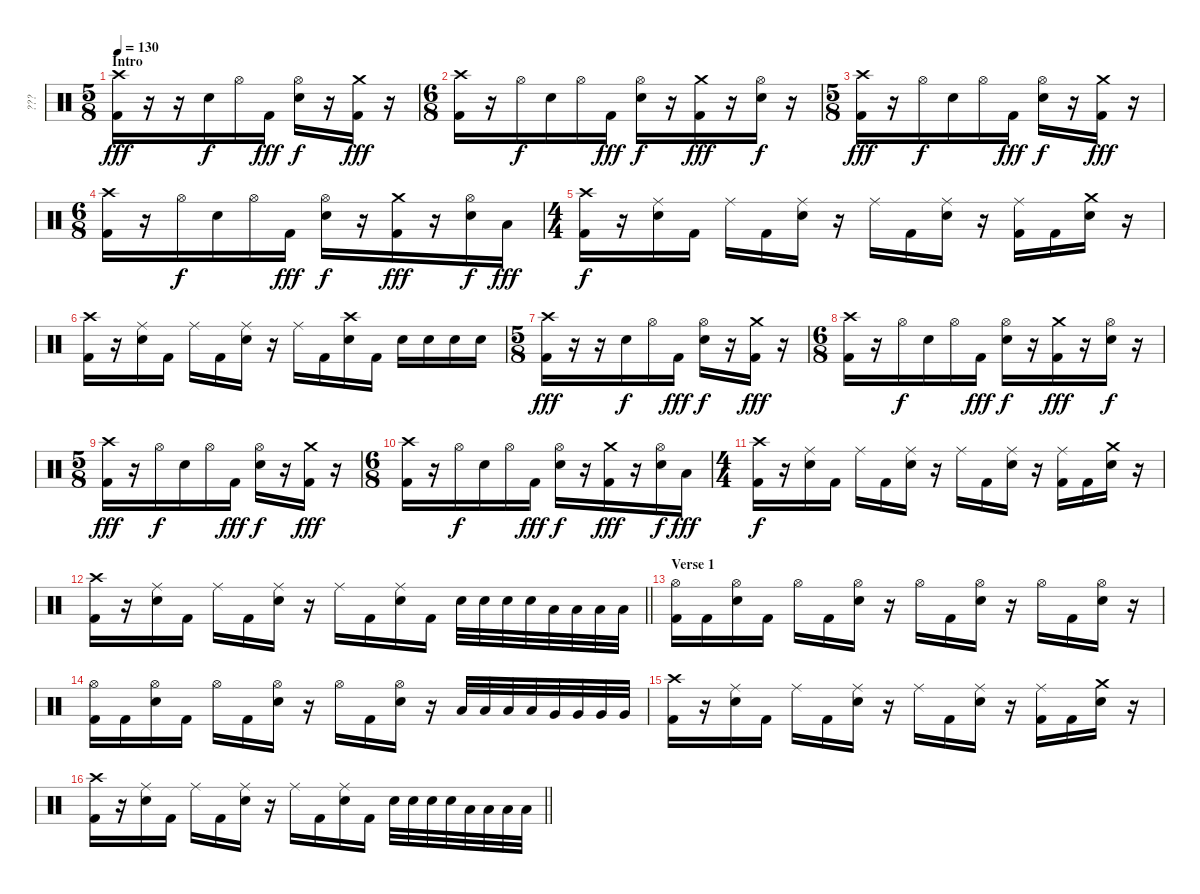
\track ("???" "???") {instrument percussion}
\staff {score}
\articulation defaults
\ts (5 8)
\section ("" "Intro")
\tempo 130
\clef neutral
\ks c
("Crash high (hit)" "Kick (hit) 2").16{dy fff} r.16 r.16 "Electric Snare (hit)".16{dy f} "Hi-Hat (open)".16 "Kick (hit) 2".16{dy fff} ("Hi-Hat (open)" "Electric Snare (hit)").16{dy f} r.16 ("Crash medium (hit)" "Kick (hit) 2").16{dy fff} r.16 |
\ts (6 8)
("Crash high (hit)" "Kick (hit) 2").16 r.16 "Hi-Hat (open)".16{dy f} "Electric Snare (hit)".16 "Hi-Hat (open)".16 "Kick (hit) 2".16{dy fff} ("Hi-Hat (open)" "Electric Snare (hit)").16{dy f} r.16 ("Crash medium (hit)" "Kick (hit) 2").16{dy fff} r.16 ("Hi-Hat (open)" "Electric Snare (hit)").16{dy f} r.16 |
\ts (5 8)
("Crash high (hit)" "Kick (hit) 2").16{dy fff} r.16 "Hi-Hat (open)".16{dy f} "Electric Snare (hit)".16 "Hi-Hat (open)".16 "Kick (hit) 2".16{dy fff} ("Hi-Hat (open)" "Electric Snare (hit)").16{dy f} r.16 ("Crash medium (hit)" "Kick (hit) 2").16{dy fff} r.16 |
\ts (6 8)
("Crash high (hit)" "Kick (hit) 2").16 r.16 "Hi-Hat (open)".16{dy f} "Electric Snare (hit)".16 "Hi-Hat (open)".16 "Kick (hit) 2".16{dy fff} ("Hi-Hat (open)" "Electric Snare (hit)").16{dy f} r.16 ("Crash medium (hit)" "Kick (hit) 2").16{dy fff} r.16 ("Hi-Hat (open)" "Electric Snare (hit)").16{dy f} "Low Tom (hit)".16{dy fff} |
\ts (4 4)
("Crash high (hit)" "Kick (hit) 2").16{dy f} r.16 ("Ride (middle)" "Electric Snare (hit)").16 "Kick (hit) 2".16 "Ride (middle)".16 "Kick (hit) 2".16 ("Ride (middle)" "Electric Snare (hit)").16 r.16 "Ride (middle)".16 "Kick (hit) 2".16 ("Ride (middle)" "Electric Snare (hit)").16 r.16 ("Ride (middle)" "Kick (hit) 2").16 "Kick (hit) 2".16 ("Crash medium (hit)" "Electric Snare (hit)").16 r.16 |
("Crash high (hit)" "Kick (hit) 2").16 r.16 ("Ride (middle)" "Electric Snare (hit)").16 "Kick (hit) 2".16 "Ride (middle)".16 "Kick (hit) 2".16 ("Ride (middle)" "Electric Snare (hit)").16 r.16 "Ride (middle)".16 "Kick (hit) 2".16 ("Crash high (hit)" "Electric Snare (hit)").16 "Kick (hit) 2".16 "Electric Snare (hit)".16 "Electric Snare (hit)".16 "Electric Snare (hit)".16 "Electric Snare (hit)".16 |
\ts (5 8)
("Crash high (hit)" "Kick (hit) 2").16{dy fff} r.16 r.16 "Electric Snare (hit)".16{dy f} "Hi-Hat (open)".16 "Kick (hit) 2".16{dy fff} ("Hi-Hat (open)" "Electric Snare (hit)").16{dy f} r.16 ("Crash medium (hit)" "Kick (hit) 2").16{dy fff} r.16 |
\ts (6 8)
("Crash high (hit)" "Kick (hit) 2").16 r.16 "Hi-Hat (open)".16{dy f} "Electric Snare (hit)".16 "Hi-Hat (open)".16 "Kick (hit) 2".16{dy fff} ("Hi-Hat (open)" "Electric Snare (hit)").16{dy f} r.16 ("Crash medium (hit)" "Kick (hit) 2").16{dy fff} r.16 ("Hi-Hat (open)" "Electric Snare (hit)").16{dy f} r.16 |
\ts (5 8)
("Crash high (hit)" "Kick (hit) 2").16{dy fff} r.16 "Hi-Hat (open)".16{dy f} "Electric Snare (hit)".16 "Hi-Hat (open)".16 "Kick (hit) 2".16{dy fff} ("Hi-Hat (open)" "Electric Snare (hit)").16{dy f} r.16 ("Crash medium (hit)" "Kick (hit) 2").16{dy fff} r.16 |
\ts (6 8)
("Crash high (hit)" "Kick (hit) 2").16 r.16 "Hi-Hat (open)".16{dy f} "Electric Snare (hit)".16 "Hi-Hat (open)".16 "Kick (hit) 2".16{dy fff} ("Hi-Hat (open)" "Electric Snare (hit)").16{dy f} r.16 ("Crash medium (hit)" "Kick (hit) 2").16{dy fff} r.16 ("Hi-Hat (open)" "Electric Snare (hit)").16{dy f} "Low Tom (hit)".16{dy fff} |
\ts (4 4)
("Crash high (hit)" "Kick (hit) 2").16{dy f} r.16 ("Ride (middle)" "Electric Snare (hit)").16 "Kick (hit) 2".16 "Ride (middle)".16 "Kick (hit) 2".16 ("Ride (middle)" "Electric Snare (hit)").16 r.16 "Ride (middle)".16 "Kick (hit) 2".16 ("Ride (middle)" "Electric Snare (hit)").16 r.16 ("Ride (middle)" "Kick (hit) 2").16 "Kick (hit) 2".16 ("Crash medium (hit)" "Electric Snare (hit)").16 r.16 |
\barLineRight lightlight
("Crash high (hit)" "Kick (hit) 2").16 r.16 ("Ride (middle)" "Electric Snare (hit)").16 "Kick (hit) 2".16 "Ride (middle)".16 "Kick (hit) 2".16 ("Ride (middle)" "Electric Snare (hit)").16 r.16 "Ride (middle)".16 "Kick (hit) 2".16 ("Ride (middle)" "Electric Snare (hit)").16 "Kick (hit) 2".16 "Electric Snare (hit)".32 "Electric Snare (hit)".32 "Electric Snare (hit)".32 "Electric Snare (hit)".32 "Low Tom (hit)".32 "Low Tom (hit)".32 "Low Tom (hit)".32 "Low Tom (hit)".32 |
\section ("" "Verse 1")
("Hi-Hat (open)" "Kick (hit) 2").16 "Kick (hit) 2".16 ("Hi-Hat (open)" "Electric Snare (hit)").16 "Kick (hit) 2".16 "Hi-Hat (open)".16 "Kick (hit) 2".16 ("Hi-Hat (open)" "Electric Snare (hit)").16 r.16 "Hi-Hat (open)".16 "Kick (hit) 2".16 ("Hi-Hat (open)" "Electric Snare (hit)").16 r.16 "Hi-Hat (open)".16 "Kick (hit) 2".16 ("Hi-Hat (open)" "Electric Snare (hit)").16 r.16 |
("Hi-Hat (open)" "Kick (hit) 2").16 "Kick (hit) 2".16 ("Hi-Hat (open)" "Electric Snare (hit)").16 "Kick (hit) 2".16 "Hi-Hat (open)".16 "Kick (hit) 2".16 ("Hi-Hat (open)" "Electric Snare (hit)").16 r.16 "Hi-Hat (open)".16 "Kick (hit) 2".16 ("Hi-Hat (open)" "Electric Snare (hit)").16 r.16 "Low Tom (hit)".32 "Low Tom (hit)".32 "Low Tom (hit)".32 "Low Tom (hit)".32 "Very Low Tom (hit)".32 "Very Low Tom (hit)".32 "Very Low Tom (hit)".32 "Very Low Tom (hit)".32 |
("Crash high (hit)" "Kick (hit) 2").16 r.16 ("Ride (middle)" "Electric Snare (hit)").16 "Kick (hit) 2".16 "Ride (middle)".16 "Kick (hit) 2".16 ("Ride (middle)" "Electric Snare (hit)").16 r.16 "Ride (middle)".16 "Kick (hit) 2".16 ("Ride (middle)" "Electric Snare (hit)").16 r.16 ("Ride (middle)" "Kick (hit) 2").16 "Kick (hit) 2".16 ("Crash medium (hit)" "Electric Snare (hit)").16 r.16 |
\barLineRight lightlight
("Crash high (hit)" "Kick (hit) 2").16 r.16 ("Ride (middle)" "Electric Snare (hit)").16 "Kick (hit) 2".16 "Ride (middle)".16 "Kick (hit) 2".16 ("Ride (middle)" "Electric Snare (hit)").16 r.16 "Ride (middle)".16 "Kick (hit) 2".16 ("Ride (middle)" "Electric Snare (hit)").16 "Kick (hit) 2".16 "Electric Snare (hit)".32 "Electric Snare (hit)".32 "Electric Snare (hit)".32 "Electric Snare (hit)".32 "Low Tom (hit)".32 "Low Tom (hit)".32 "Low Tom (hit)".32 "Low Tom (hit)".32
